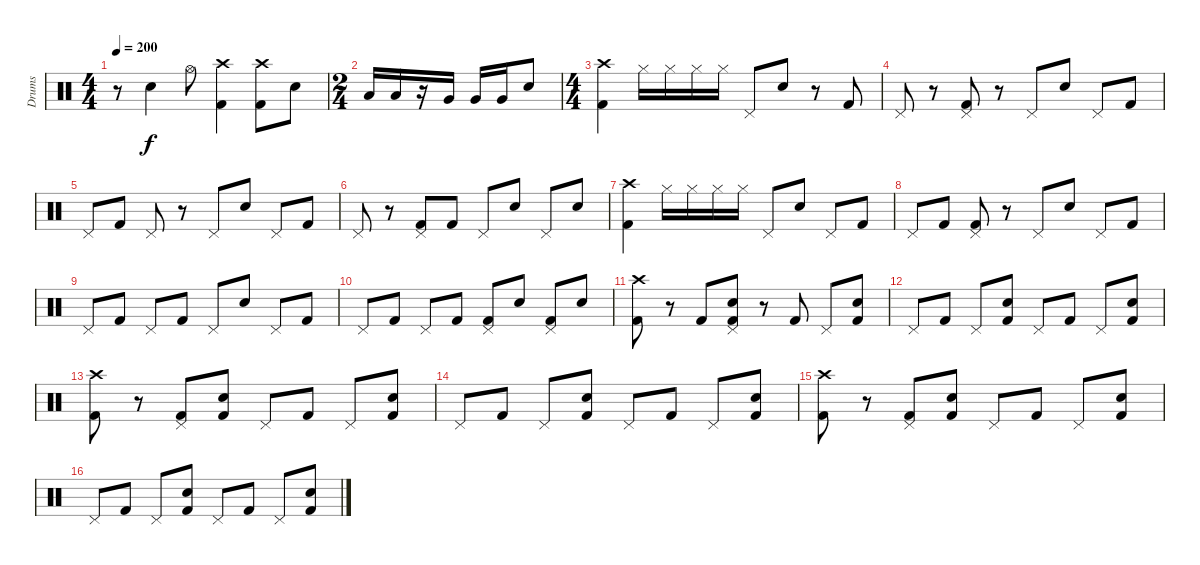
\track ("Drums" "Drums") {instrument percussion}
\staff {score}
\articulation defaults
\ts (4 4)
\tempo 200
\clef neutral
\ks c
r.8{dy f} "Snare (hit) 2".4 "Hi-Hat (open)".8 ("Crash high (hit)" "Kick (hit) 2").4 ("Crash high (hit)" "Kick (hit) 2").8 "Snare (hit) 2".8 |
\ts (2 4)
"Low Tom (hit)".16 "Low Tom (hit)".16 r.16 "Very Low Tom (hit)".16 "Very Low Tom (hit)".16 "Very Low Tom (hit)".16 "Snare (hit) 2".8 |
\ts (4 4)
("Crash high (hit)" "Kick (hit) 2").4 "Hi-Hat (closed)".16 "Hi-Hat (closed)".16 "Hi-Hat (closed)".16 "Hi-Hat (closed)".16 "Pedal Hi-Hat (hit)".8 "Snare (hit) 2".8 r.8 "Kick (hit) 2".8 |
"Pedal Hi-Hat (hit)".8 r.8 ("Pedal Hi-Hat (hit)" "Kick (hit) 2").8 r.8 "Pedal Hi-Hat (hit)".8 "Snare (hit) 2".8 "Pedal Hi-Hat (hit)".8 "Kick (hit) 2".8 |
"Pedal Hi-Hat (hit)".8 "Kick (hit) 2".8 "Pedal Hi-Hat (hit)".8 r.8 "Pedal Hi-Hat (hit)".8 "Snare (hit) 2".8 "Pedal Hi-Hat (hit)".8 "Kick (hit) 2".8 |
"Pedal Hi-Hat (hit)".8 r.8 ("Pedal Hi-Hat (hit)" "Kick (hit) 2").8 "Kick (hit) 2".8 "Pedal Hi-Hat (hit)".8 "Snare (hit) 2".8 "Pedal Hi-Hat (hit)".8 "Snare (hit) 2".8 |
("Crash high (hit)" "Kick (hit) 2").4 "Hi-Hat (closed)".16 "Hi-Hat (closed)".16 "Hi-Hat (closed)".16 "Hi-Hat (closed)".16 "Pedal Hi-Hat (hit)".8 "Snare (hit) 2".8 "Pedal Hi-Hat (hit)".8 "Kick (hit) 2".8 |
"Pedal Hi-Hat (hit)".8 "Kick (hit) 2".8 ("Pedal Hi-Hat (hit)" "Kick (hit) 2").8 r.8 "Pedal Hi-Hat (hit)".8 "Snare (hit) 2".8 "Pedal Hi-Hat (hit)".8 "Kick (hit) 2".8 |
"Pedal Hi-Hat (hit)".8 "Kick (hit) 2".8 "Pedal Hi-Hat (hit)".8 "Kick (hit) 2".8 "Pedal Hi-Hat (hit)".8 "Snare (hit) 2".8 "Pedal Hi-Hat (hit)".8 "Kick (hit) 2".8 |
"Pedal Hi-Hat (hit)".8 "Kick (hit) 2".8 "Pedal Hi-Hat (hit)".8 "Kick (hit) 2".8 ("Pedal Hi-Hat (hit)" "Kick (hit) 2").8 "Snare (hit) 2".8 ("Pedal Hi-Hat (hit)" "Kick (hit) 2").8 "Snare (hit) 2".8 |
("Crash high (hit)" "Kick (hit) 2").8 r.8 "Kick (hit) 2".8 ("Pedal Hi-Hat (hit)" "Snare (hit) 2" "Kick (hit) 2").8 r.8 "Kick (hit) 2".8 "Pedal Hi-Hat (hit)".8 ("Snare (hit) 2" "Kick (hit) 2").8 |
"Pedal Hi-Hat (hit)".8 "Kick (hit) 2".8 "Pedal Hi-Hat (hit)".8 ("Snare (hit) 2" "Kick (hit) 2").8 "Pedal Hi-Hat (hit)".8 "Kick (hit) 2".8 "Pedal Hi-Hat (hit)".8 ("Snare (hit) 2" "Kick (hit) 2").8 |
("Crash high (hit)" "Kick (hit) 2").8 r.8 ("Pedal Hi-Hat (hit)" "Kick (hit) 2").8 ("Snare (hit) 2" "Kick (hit) 2").8 "Pedal Hi-Hat (hit)".8 "Kick (hit) 2".8 "Pedal Hi-Hat (hit)".8 ("Snare (hit) 2" "Kick (hit) 2").8 |
"Pedal Hi-Hat (hit)".8 "Kick (hit) 2".8 "Pedal Hi-Hat (hit)".8 ("Snare (hit) 2" "Kick (hit) 2").8 "Pedal Hi-Hat (hit)".8 "Kick (hit) 2".8 "Pedal Hi-Hat (hit)".8 ("Snare (hit) 2" "Kick (hit) 2").8 |
("Crash high (hit)" "Kick (hit) 2").8 r.8 ("Pedal Hi-Hat (hit)" "Kick (hit) 2").8 ("Snare (hit) 2" "Kick (hit) 2").8 "Pedal Hi-Hat (hit)".8 "Kick (hit) 2".8 "Pedal Hi-Hat (hit)".8 ("Snare (hit) 2" "Kick (hit) 2").8 |
"Pedal Hi-Hat (hit)".8 "Kick (hit) 2".8 "Pedal Hi-Hat (hit)".8 ("Snare (hit) 2" "Kick (hit) 2").8 "Pedal Hi-Hat (hit)".8 "Kick (hit) 2".8 "Pedal Hi-Hat (hit)".8 ("Snare (hit) 2" "Kick (hit) 2").8
